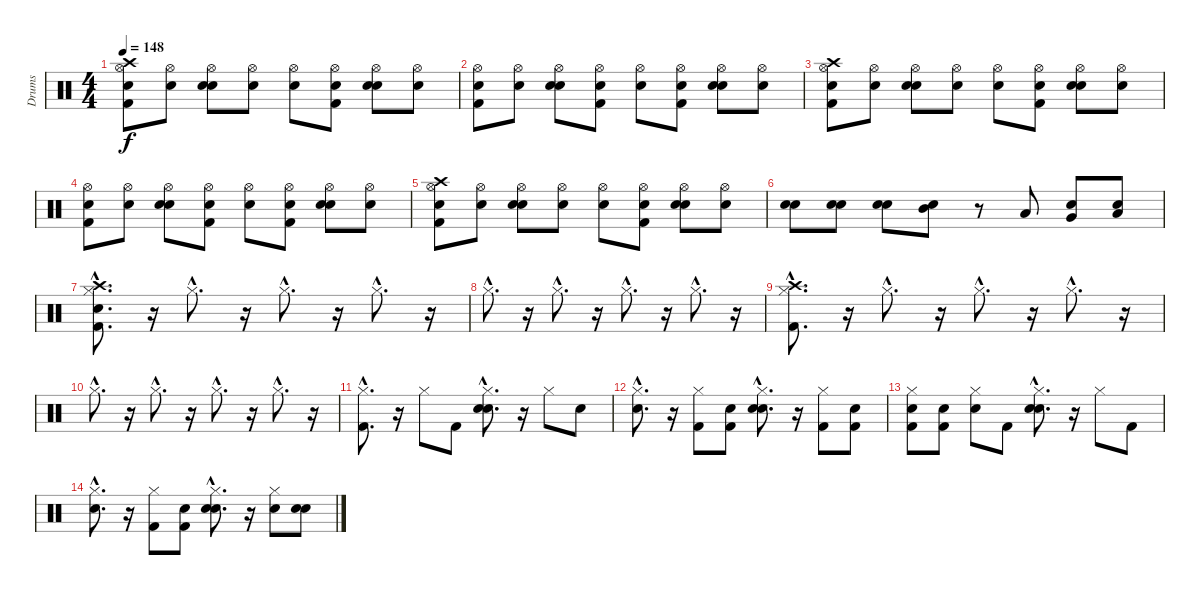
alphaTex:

\track ("Drums" "Drums") {instrument percussion}
\staff {score}
\articulation defaults
\ts (4 4)
\tempo 148
\clef neutral
\ks c
("Snare (hit)" "Kick (hit) 2" "Hi-Hat (open)" "Crash high (hit)").8{dy f} ("Snare (hit)" "Hi-Hat (open)").8 ("Snare (hit)" "Snare (hit) 2" "Hi-Hat (open)").8 ("Snare (hit)" "Hi-Hat (open)").8 ("Snare (hit)" "Hi-Hat (open)").8 ("Snare (hit)" "Kick (hit) 2" "Hi-Hat (open)").8 ("Snare (hit)" "Snare (hit) 2" "Hi-Hat (open)").8 ("Snare (hit)" "Hi-Hat (open)").8 |
("Snare (hit)" "Kick (hit) 2" "Hi-Hat (open)").8 ("Snare (hit)" "Hi-Hat (open)").8 ("Snare (hit)" "Snare (hit) 2" "Hi-Hat (open)").8 ("Snare (hit)" "Kick (hit) 2" "Hi-Hat (open)").8 ("Snare (hit)" "Hi-Hat (open)").8 ("Snare (hit)" "Kick (hit) 2" "Hi-Hat (open)").8 ("Snare (hit)" "Snare (hit) 2" "Hi-Hat (open)").8 ("Snare (hit)" "Hi-Hat (open)").8 |
("Snare (hit)" "Kick (hit) 2" "Hi-Hat (open)" "Crash high (hit)").8 ("Snare (hit)" "Hi-Hat (open)").8 ("Snare (hit)" "Snare (hit) 2" "Hi-Hat (open)").8 ("Snare (hit)" "Hi-Hat (open)").8 ("Snare (hit)" "Hi-Hat (open)").8 ("Snare (hit)" "Kick (hit) 2" "Hi-Hat (open)").8 ("Snare (hit)" "Snare (hit) 2" "Hi-Hat (open)").8 ("Snare (hit)" "Hi-Hat (open)").8 |
("Snare (hit)" "Kick (hit) 2" "Hi-Hat (open)").8 ("Snare (hit)" "Hi-Hat (open)").8 ("Snare (hit)" "Snare (hit) 2" "Hi-Hat (open)").8 ("Snare (hit)" "Kick (hit) 2" "Hi-Hat (open)").8 ("Snare (hit)" "Hi-Hat (open)").8 ("Snare (hit)" "Kick (hit) 2" "Hi-Hat (open)").8 ("Snare (hit)" "Snare (hit) 2" "Hi-Hat (open)").8 ("Snare (hit)" "Hi-Hat (open)").8 |
("Snare (hit)" "Kick (hit) 2" "Hi-Hat (open)" "Crash high (hit)").8 ("Snare (hit)" "Hi-Hat (open)").8 ("Snare (hit)" "Snare (hit) 2" "Hi-Hat (open)").8 ("Snare (hit)" "Hi-Hat (open)").8 ("Snare (hit)" "Hi-Hat (open)").8 ("Snare (hit)" "Kick (hit) 2" "Hi-Hat (open)").8 ("Snare (hit)" "Snare (hit) 2" "Hi-Hat (open)").8 ("Snare (hit)" "Hi-Hat (open)").8 |
("Snare (hit)" "Snare (hit) 2").8 ("Snare (hit)" "Snare (hit) 2").8 ("Snare (hit)" "Snare (hit) 2").8 ("Snare (hit)" "Mid Tom (hit)").8 r.8 "Low Tom (hit)".8 ("Snare (hit)" "Very Low Tom (hit)").8 ("Snare (hit)" "Low Floor Tom (hit)").8 |
("Snare (hit)"{hac} "Kick (hit) 2"{hac} "Hi-Hat (closed)"{hac} "Crash high (hit)"{hac}).8{d} r.16 "Hi-Hat (closed)"{hac}.8{d} r.16 "Hi-Hat (closed)"{hac}.8{d} r.16 "Hi-Hat (closed)"{hac}.8{d} r.16 |
"Hi-Hat (closed)"{hac}.8{d} r.16 "Hi-Hat (closed)"{hac}.8{d} r.16 "Hi-Hat (closed)"{hac}.8{d} r.16 "Hi-Hat (closed)"{hac}.8{d} r.16 |
("Kick (hit) 2"{hac} "Hi-Hat (closed)"{hac} "Crash high (hit)"{hac}).8{d} r.16 "Hi-Hat (closed)"{hac}.8{d} r.16 "Hi-Hat (closed)"{hac}.8{d} r.16 "Hi-Hat (closed)"{hac}.8{d} r.16 |
"Hi-Hat (closed)"{hac}.8{d} r.16 "Hi-Hat (closed)"{hac}.8{d} r.16 "Hi-Hat (closed)"{hac}.8{d} r.16 "Hi-Hat (closed)"{hac}.8{d} r.16 |
("Kick (hit) 2"{hac} "Hi-Hat (closed)"{hac}).8{d} r.16 "Hi-Hat (closed)".8 "Kick (hit) 2".8 ("Snare (hit)"{hac} "Snare (hit) 2"{hac} "Hi-Hat (closed)"{hac}).8{d} r.16 "Hi-Hat (closed)".8 "Snare (hit) 2".8 |
("Snare (hit)"{hac} "Hi-Hat (closed)"{hac}).8{d} r.16 ("Kick (hit) 2" "Hi-Hat (closed)").8 ("Snare (hit)" "Kick (hit) 2").8 ("Snare (hit)"{hac} "Snare (hit) 2"{hac} "Hi-Hat (closed)"{hac}).8{d} r.16 ("Kick (hit) 2" "Hi-Hat (closed)").8 ("Snare (hit)" "Kick (hit) 2").8 |
("Snare (hit)" "Kick (hit) 2" "Hi-Hat (closed)").8 ("Snare (hit)" "Kick (hit) 2").8 ("Snare (hit)" "Hi-Hat (closed)").8 "Kick (hit) 2".8 ("Snare (hit)"{hac} "Snare (hit) 2"{hac} "Hi-Hat (closed)"{hac}).8{d} r.16 "Hi-Hat (closed)".8 "Kick (hit) 2".8 |
("Snare (hit)"{hac} "Hi-Hat (closed)"{hac}).8{d} r.16 ("Kick (hit) 2" "Hi-Hat (closed)").8 ("Snare (hit)" "Kick (hit) 2").8 ("Snare (hit)"{hac} "Snare (hit) 2"{hac} "Hi-Hat (closed)"{hac}).8{d} r.16 ("Snare (hit) 2" "Hi-Hat (closed)").8 ("Snare (hit)" "Snare (hit) 2").8
